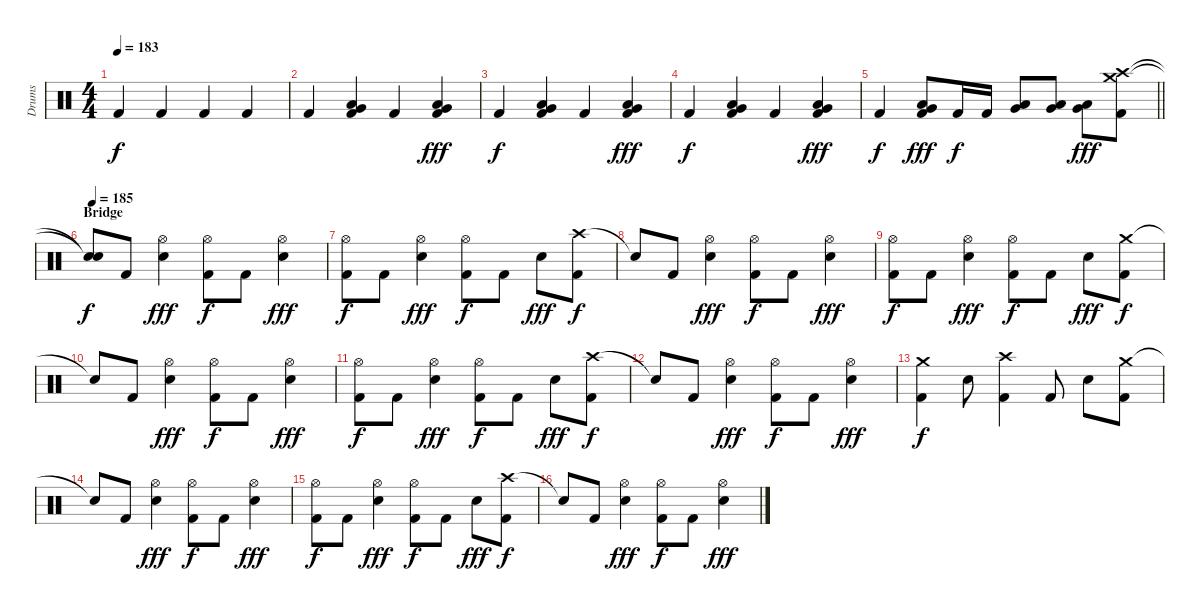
\track ("Drums" "Drums") {instrument percussion}
\staff {score}
\articulation defaults
\ts (4 4)
\tempo 183
\clef neutral
\ks c "Kick (hit) 2".4{dy f} "Kick (hit) 2".4 "Kick (hit) 2".4 "Kick (hit) 2".4
|
"Kick (hit) 2".4 ("Very Low Tom (hit)" "Low Floor Tom (hit)" "Kick (hit) 2").4 "Kick (hit) 2".4 ("Very Low Tom (hit)" "Low Floor Tom (hit)" "Kick (hit) 2").4{dy fff} |
"Kick (hit) 2".4{dy f} ("Very Low Tom (hit)" "Low Floor Tom (hit)" "Kick (hit) 2").4 "Kick (hit) 2".4 ("Very Low Tom (hit)" "Low Floor Tom (hit)" "Kick (hit) 2").4{dy fff} |
"Kick (hit) 2".4{dy f} ("Very Low Tom (hit)" "Low Floor Tom (hit)" "Kick (hit) 2").4 "Kick (hit) 2".4 ("Very Low Tom (hit)" "Low Floor Tom (hit)" "Kick (hit) 2").4{dy fff} |
\barLineRight lightlight "Kick (hit) 2".4{dy f}
("Very Low Tom (hit)" "Low Floor Tom (hit)" "Kick (hit) 2").8{dy fff} "Kick (hit) 2".16{dy f} "Kick (hit) 2".16 ("Very Low Tom (hit)" "Low Floor Tom (hit)").8 ("Very Low Tom (hit)" "Low Floor Tom (hit)").8 ("Very Low Tom (hit)" "Low Floor Tom (hit)").8{dy fff} ("Crash medium (hit)" "Crash high (hit)" "Kick (hit) 2").8 |
\section ("" "Bridge")
\tempo 185
("Snare (hit)"{t} "Snare (hit)"{t}).8{dy f} "Kick (hit) 2".8 ("Hi-Hat (open)" "Electric Snare (hit)").4{dy fff} ("Hi-Hat (open)" "Kick (hit) 2").8{dy f} "Kick (hit) 2".8 ("Hi-Hat (open)" "Electric Snare (hit)").4{dy fff} |
("Hi-Hat (open)" "Kick (hit) 2").8{dy f} "Kick (hit) 2".8 ("Hi-Hat (open)" "Electric Snare (hit)").4{dy fff} ("Hi-Hat (open)" "Kick (hit) 2").8{dy f} "Kick (hit) 2".8 "Electric Snare (hit)".8{dy fff} ("Crash high (hit)" "Kick (hit) 2").8{dy f} |
"Snare (hit)"{t}.8 "Kick (hit) 2".8 ("Hi-Hat (open)" "Electric Snare (hit)").4{dy fff} ("Hi-Hat (open)" "Kick (hit) 2").8{dy f} "Kick (hit) 2".8 ("Hi-Hat (open)" "Electric Snare (hit)").4{dy fff} |
("Hi-Hat (open)" "Kick (hit) 2").8{dy f} "Kick (hit) 2".8 ("Hi-Hat (open)" "Electric Snare (hit)").4{dy fff} ("Hi-Hat (open)" "Kick (hit) 2").8{dy f} "Kick (hit) 2".8 "Electric Snare (hit)".8{dy fff} ("Crash medium (hit)" "Kick (hit) 2").8{dy f} |
"Snare (hit)"{t}.8 "Kick (hit) 2".8 ("Hi-Hat (open)" "Electric Snare (hit)").4{dy fff} ("Hi-Hat (open)" "Kick (hit) 2").8{dy f} "Kick (hit) 2".8 ("Hi-Hat (open)" "Electric Snare (hit)").4{dy fff} |
("Hi-Hat (open)" "Kick (hit) 2").8{dy f} "Kick (hit) 2".8 ("Hi-Hat (open)" "Electric Snare (hit)").4{dy fff} ("Hi-Hat (open)" "Kick (hit) 2").8{dy f} "Kick (hit) 2".8 "Electric Snare (hit)".8{dy fff} ("Crash high (hit)" "Kick (hit) 2").8{dy f} |
"Snare (hit)"{t}.8 "Kick (hit) 2".8 ("Hi-Hat (open)" "Electric Snare (hit)").4{dy fff} ("Hi-Hat (open)" "Kick (hit) 2").8{dy f} "Kick (hit) 2".8 ("Hi-Hat (open)" "Electric Snare (hit)").4{dy fff} |
("Crash medium (hit)" "Kick (hit) 2").4{dy f} "Electric Snare (hit)".8 ("Crash high (hit)" "Kick (hit) 2").4 "Kick (hit) 2".8 "Electric Snare (hit)".8 ("Crash medium (hit)" "Kick (hit) 2").8 |
"Snare (hit)"{t}.8 "Kick (hit) 2".8 ("Hi-Hat (open)" "Electric Snare (hit)").4{dy fff} ("Hi-Hat (open)" "Kick (hit) 2").8{dy f} "Kick (hit) 2".8 ("Hi-Hat (open)" "Electric Snare (hit)").4{dy fff} |
("Hi-Hat (open)" "Kick (hit) 2").8{dy f} "Kick (hit) 2".8 ("Hi-Hat (open)" "Electric Snare (hit)").4{dy fff} ("Hi-Hat (open)" "Kick (hit) 2").8{dy f} "Kick (hit) 2".8 "Electric Snare (hit)".8{dy fff} ("Crash high (hit)" "Kick (hit) 2").8{dy f} |
"Snare (hit)"{t}.8 "Kick (hit) 2".8 ("Hi-Hat (open)" "Electric Snare (hit)").4{dy fff} ("Hi-Hat (open)" "Kick (hit) 2").8{dy f} "Kick (hit) 2".8 ("Hi-Hat (open)" "Electric Snare (hit)").4{dy fff}
